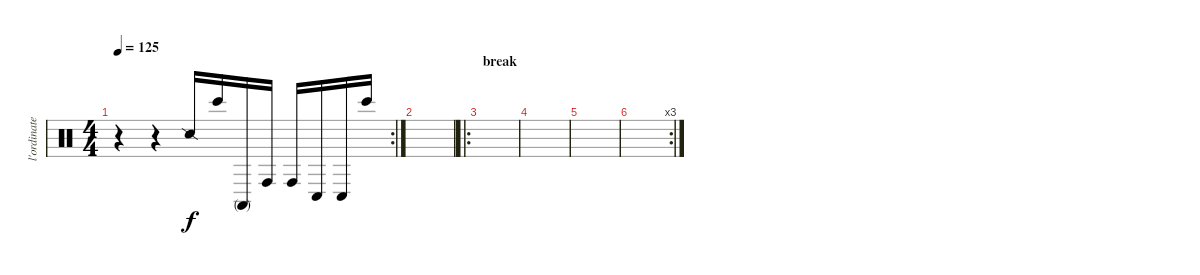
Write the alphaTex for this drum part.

\track ("l'ordinateur numero 2-(synth batterie)" "l'ordinate") {instrument percussion}
\staff {score}
\articulation defaults
\rc 2
\ts (4 4)
\tempo 125
\clef neutral
\ks c
r.4{dy f} r.4 "Snare (side stick) 2".16 "Bongo High (hit)".16 "Conga high (mute)".16 "Conga high (hit)".16 "Conga high (hit)".16 "Conga low (hit)".16 "Conga low (hit)".16 "Bongo High (hit)".16 |
|
\ro
\section ("" "break")
|
|
|
\rc 3
